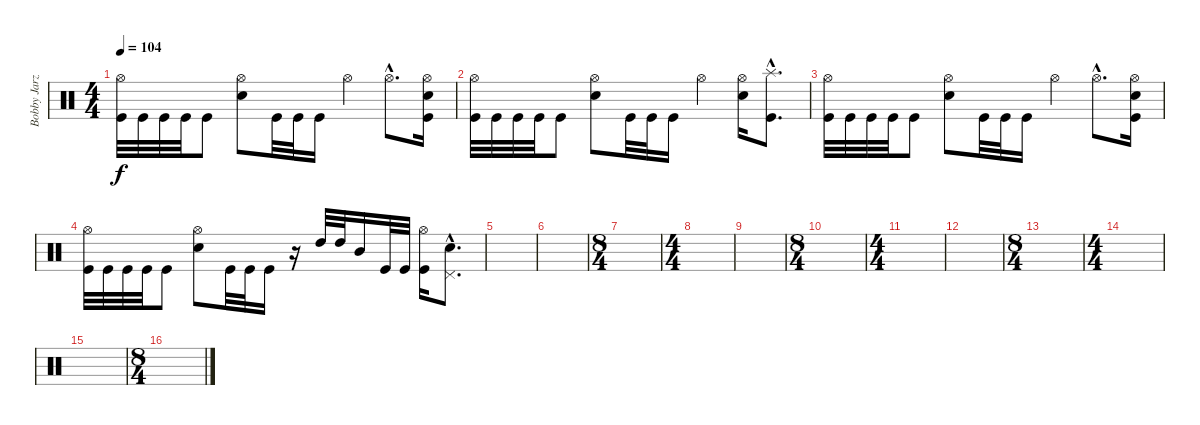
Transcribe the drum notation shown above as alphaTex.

\track ("Bobby Jarzombek" "Bobby Jarz") {instrument percussion}
\staff {score}
\articulation defaults
\ts (4 4)
\tempo 104
\clef neutral
\ks c
("Hi-Hat (open)" "Kick (hit)").32{dy f} "Kick (hit)".32 "Kick (hit)".32 "Kick (hit)".32 "Kick (hit)".8 ("Hi-Hat (open)" "Electric Snare (hit)").8 "Kick (hit)".32 "Kick (hit)".32 "Kick (hit)".16 "Hi-Hat (open)".4 "Hi-Hat (open)"{hac}.8{d} ("Hi-Hat (open)" "Electric Snare (hit)" "Kick (hit)").16 |
("Hi-Hat (open)" "Kick (hit)").32 "Kick (hit)".32 "Kick (hit)".32 "Kick (hit)".32 "Kick (hit)".8 ("Hi-Hat (open)" "Electric Snare (hit)").8 "Kick (hit)".32 "Kick (hit)".32 "Kick (hit)".16 "Hi-Hat (open)".4 ("Hi-Hat (open)" "Electric Snare (hit)").16 ("Splash (hit)"{hac} "Kick (hit)"{hac}).8{d} |
("Hi-Hat (open)" "Kick (hit)").32 "Kick (hit)".32 "Kick (hit)".32 "Kick (hit)".32 "Kick (hit)".8 ("Hi-Hat (open)" "Electric Snare (hit)").8 "Kick (hit)".32 "Kick (hit)".32 "Kick (hit)".16 "Hi-Hat (open)".4 "Hi-Hat (open)"{hac}.8{d} ("Hi-Hat (open)" "Electric Snare (hit)" "Kick (hit)").16 |
("Hi-Hat (open)" "Kick (hit)").32 "Kick (hit)".32 "Kick (hit)".32 "Kick (hit)".32 "Kick (hit)".8 ("Hi-Hat (open)" "Electric Snare (hit)").8 "Kick (hit)".32 "Kick (hit)".32 "Kick (hit)".16 r.16 "High Tom (hit)".32 "High Tom (hit)".32 "Mid Tom (hit)".16 "Kick (hit)".32 "Kick (hit)".32 ("Hi-Hat (open)" "Kick (hit)").16 ("Electric Snare (hit)"{hac} "Pedal Hi-Hat (hit)"{hac}).8{d} |
|
|
\ts (8 4)
|
\ts (4 4)
|
|
\ts (8 4)
|
\ts (4 4)
|
|
\ts (8 4)
|
\ts (4 4)
|
|
\ts (8 4)
